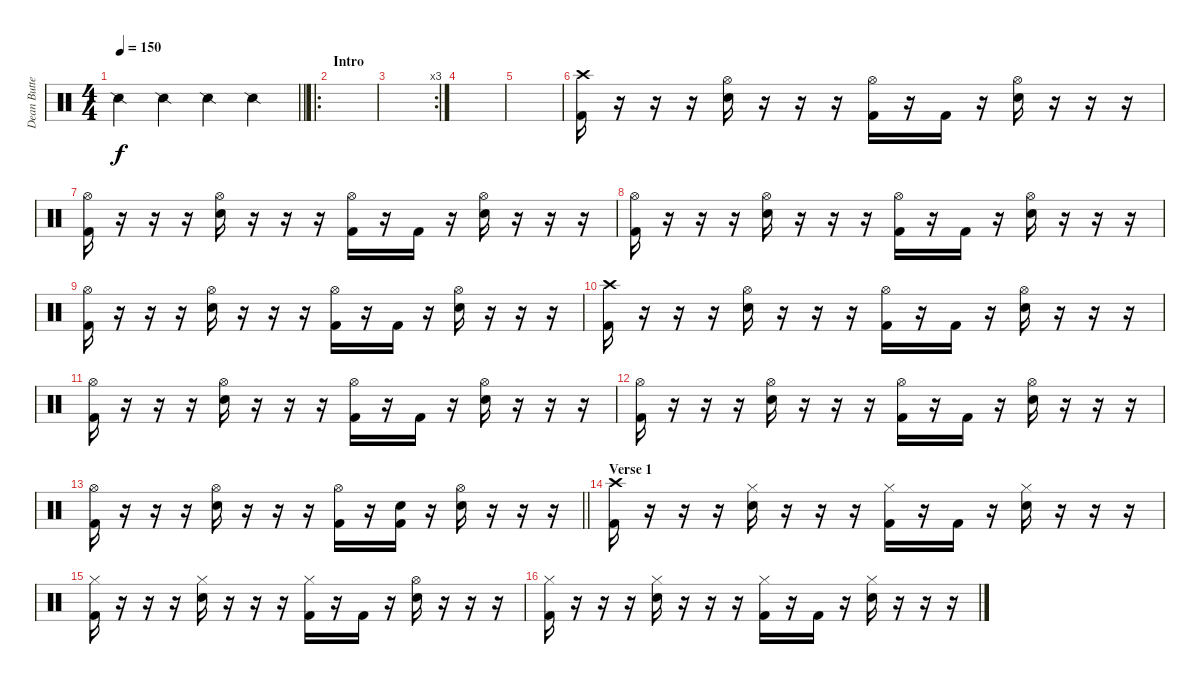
\track ("Dean Butterworth" "Dean Butte") {instrument percussion}
\staff {score}
\articulation defaults
\ts (4 4)
\tempo 150
\clef neutral
\barLineRight lightlight
\ks c "Snare (side stick) 2".4{dy f} "Snare (side stick) 2".4 "Snare (side stick) 2".4 "Snare (side stick) 2".4
|
\ro
\section ("" "Intro")
|
\rc 3
|
|
|
("Crash high (hit)" "Kick (hit) 2").16 r.16 r.16 r.16 ("Hi-Hat (open)" "Electric Snare (hit)").16 r.16 r.16 r.16 ("Hi-Hat (open)" "Kick (hit) 2").16 r.16 "Kick (hit) 2".16 r.16 ("Hi-Hat (open)" "Electric Snare (hit)").16 r.16 r.16 r.16 |
("Hi-Hat (open)" "Kick (hit) 2").16 r.16 r.16 r.16 ("Hi-Hat (open)" "Electric Snare (hit)").16 r.16 r.16 r.16 ("Hi-Hat (open)" "Kick (hit) 2").16 r.16 "Kick (hit) 2".16 r.16 ("Hi-Hat (open)" "Electric Snare (hit)").16 r.16 r.16 r.16 |
("Hi-Hat (open)" "Kick (hit) 2").16 r.16 r.16 r.16 ("Hi-Hat (open)" "Electric Snare (hit)").16 r.16 r.16 r.16 ("Hi-Hat (open)" "Kick (hit) 2").16 r.16 "Kick (hit) 2".16 r.16 ("Hi-Hat (open)" "Electric Snare (hit)").16 r.16 r.16 r.16 |
("Hi-Hat (open)" "Kick (hit) 2").16 r.16 r.16 r.16 ("Hi-Hat (open)" "Electric Snare (hit)").16 r.16 r.16 r.16 ("Hi-Hat (open)" "Kick (hit) 2").16 r.16 "Kick (hit) 2".16 r.16 ("Hi-Hat (open)" "Electric Snare (hit)").16 r.16 r.16 r.16 |
("Crash high (hit)" "Kick (hit) 2").16 r.16 r.16 r.16 ("Hi-Hat (open)" "Electric Snare (hit)").16 r.16 r.16 r.16 ("Hi-Hat (open)" "Kick (hit) 2").16 r.16 "Kick (hit) 2".16 r.16 ("Hi-Hat (open)" "Electric Snare (hit)").16 r.16 r.16 r.16 |
("Hi-Hat (open)" "Kick (hit) 2").16 r.16 r.16 r.16 ("Hi-Hat (open)" "Electric Snare (hit)").16 r.16 r.16 r.16 ("Hi-Hat (open)" "Kick (hit) 2").16 r.16 "Kick (hit) 2".16 r.16 ("Hi-Hat (open)" "Electric Snare (hit)").16 r.16 r.16 r.16 |
("Hi-Hat (open)" "Kick (hit) 2").16 r.16 r.16 r.16 ("Hi-Hat (open)" "Electric Snare (hit)").16 r.16 r.16 r.16 ("Hi-Hat (open)" "Kick (hit) 2").16 r.16 "Kick (hit) 2".16 r.16 ("Hi-Hat (open)" "Electric Snare (hit)").16 r.16 r.16 r.16 |
\barLineRight lightlight
("Hi-Hat (open)" "Kick (hit) 2").16 r.16 r.16 r.16 ("Hi-Hat (open)" "Electric Snare (hit)").16 r.16 r.16 r.16 ("Hi-Hat (open)" "Kick (hit) 2").16 r.16 ("Electric Snare (hit)" "Kick (hit) 2").16 r.16 ("Hi-Hat (open)" "Electric Snare (hit)").16 r.16 r.16 r.16 |
\section ("" "Verse 1")
("Crash high (hit)" "Kick (hit) 2").16 r.16 r.16 r.16 ("Hi-Hat (closed)" "Snare (hit) 2").16 r.16 r.16 r.16 ("Hi-Hat (closed)" "Kick (hit) 2").16 r.16 "Kick (hit) 2".16 r.16 ("Hi-Hat (closed)" "Snare (hit) 2").16 r.16 r.16 r.16 |
("Hi-Hat (closed)" "Kick (hit) 2").16 r.16 r.16 r.16 ("Hi-Hat (closed)" "Snare (hit) 2").16 r.16 r.16 r.16 ("Hi-Hat (closed)" "Kick (hit) 2").16 r.16 "Kick (hit) 2".16 r.16 ("Hi-Hat (open)" "Snare (hit) 2").16 r.16 r.16 r.16 |
("Hi-Hat (closed)" "Kick (hit) 2").16 r.16 r.16 r.16 ("Hi-Hat (closed)" "Snare (hit) 2").16 r.16 r.16 r.16 ("Hi-Hat (closed)" "Kick (hit) 2").16 r.16 "Kick (hit) 2".16 r.16 ("Hi-Hat (closed)" "Snare (hit) 2").16 r.16 r.16 r.16
